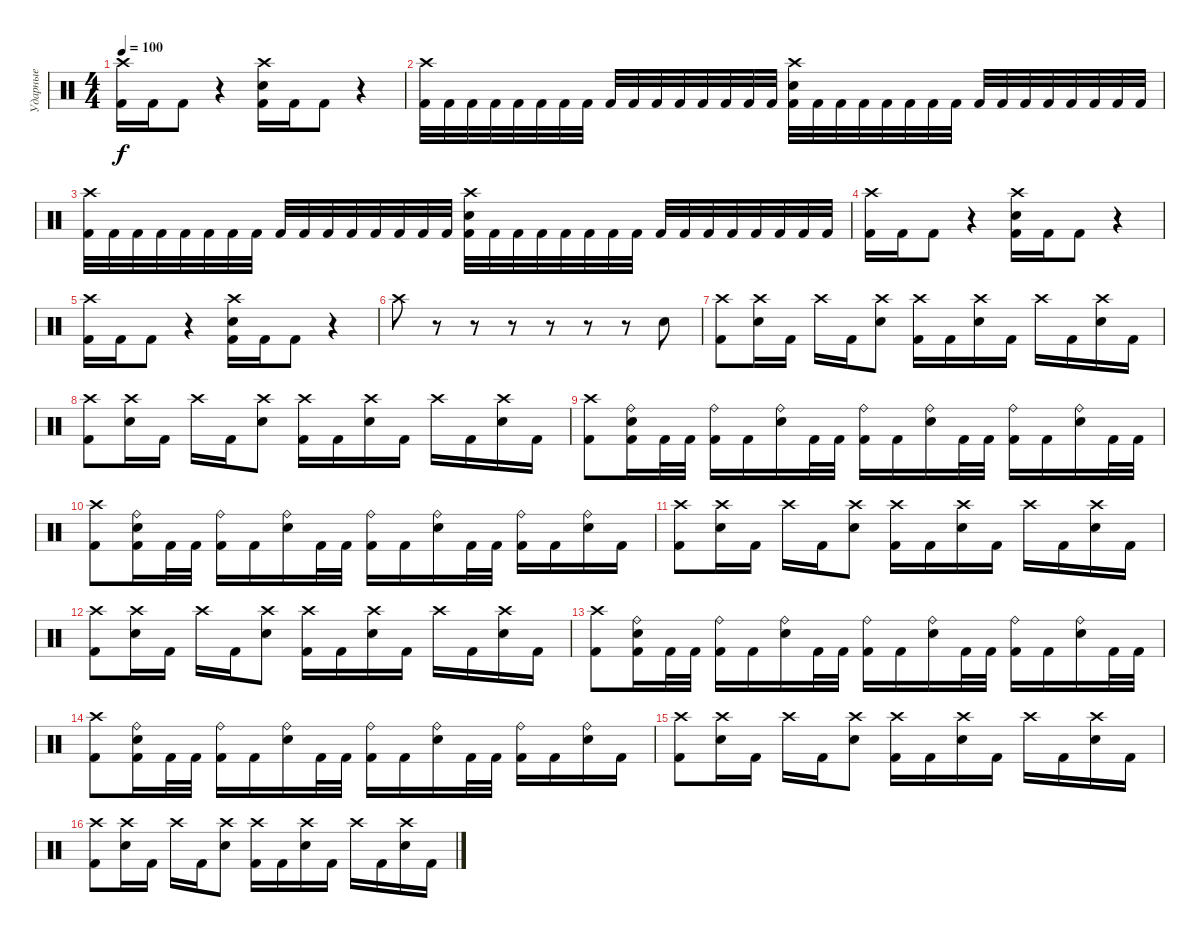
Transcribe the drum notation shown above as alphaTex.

\track ("Ударные" "Ударные") {instrument percussion}
\staff
\articulation defaults
\ts (4 4)
\tempo 100
\clef neutral
\ks c
("Crash high (hit)" "Kick (hit) 2").16{dy f} "Kick (hit) 2".16 "Kick (hit) 2".8 r.4 ("Crash high (hit)" "Electric Snare (hit)" "Kick (hit) 2").16 "Kick (hit) 2".16 "Kick (hit) 2".8 r.4 |
("Crash high (hit)" "Kick (hit) 2").32 "Kick (hit) 2".32 "Kick (hit) 2".32 "Kick (hit) 2".32 "Kick (hit) 2".32 "Kick (hit) 2".32 "Kick (hit) 2".32 "Kick (hit) 2".32 "Kick (hit) 2".32 "Kick (hit) 2".32 "Kick (hit) 2".32 "Kick (hit) 2".32 "Kick (hit) 2".32 "Kick (hit) 2".32 "Kick (hit) 2".32 "Kick (hit) 2".32 ("Crash high (hit)" "Electric Snare (hit)" "Kick (hit) 2").32 "Kick (hit) 2".32 "Kick (hit) 2".32 "Kick (hit) 2".32 "Kick (hit) 2".32 "Kick (hit) 2".32 "Kick (hit) 2".32 "Kick (hit) 2".32 "Kick (hit) 2".32 "Kick (hit) 2".32 "Kick (hit) 2".32 "Kick (hit) 2".32 "Kick (hit) 2".32 "Kick (hit) 2".32 "Kick (hit) 2".32 "Kick (hit) 2".32 |
("Crash high (hit)" "Kick (hit) 2").32 "Kick (hit) 2".32 "Kick (hit) 2".32 "Kick (hit) 2".32 "Kick (hit) 2".32 "Kick (hit) 2".32 "Kick (hit) 2".32 "Kick (hit) 2".32 "Kick (hit) 2".32 "Kick (hit) 2".32 "Kick (hit) 2".32 "Kick (hit) 2".32 "Kick (hit) 2".32 "Kick (hit) 2".32 "Kick (hit) 2".32 "Kick (hit) 2".32 ("Crash high (hit)" "Electric Snare (hit)" "Kick (hit) 2").32 "Kick (hit) 2".32 "Kick (hit) 2".32 "Kick (hit) 2".32 "Kick (hit) 2".32 "Kick (hit) 2".32 "Kick (hit) 2".32 "Kick (hit) 2".32 "Kick (hit) 2".32 "Kick (hit) 2".32 "Kick (hit) 2".32 "Kick (hit) 2".32 "Kick (hit) 2".32 "Kick (hit) 2".32 "Kick (hit) 2".32 "Kick (hit) 2".32 |
("Crash high (hit)" "Kick (hit) 2").16 "Kick (hit) 2".16 "Kick (hit) 2".8 r.4 ("Crash high (hit)" "Electric Snare (hit)" "Kick (hit) 2").16 "Kick (hit) 2".16 "Kick (hit) 2".8 r.4 |
("Crash high (hit)" "Kick (hit) 2").16 "Kick (hit) 2".16 "Kick (hit) 2".8 r.4 ("Crash high (hit)" "Electric Snare (hit)" "Kick (hit) 2").16 "Kick (hit) 2".16 "Kick (hit) 2".8 r.4 |
"Crash high (hit)".8 r.8 r.8 r.8 r.8 r.8 r.8 "Electric Snare (hit)".8 |
("Crash high (hit)" "Kick (hit) 2").8 ("Crash high (hit)" "Electric Snare (hit)").16 "Kick (hit) 2".16 "Crash high (hit)".16 "Kick (hit) 2".16 ("Crash high (hit)" "Electric Snare (hit)").8 ("Crash high (hit)" "Kick (hit) 2").16 "Kick (hit) 2".16 ("Crash high (hit)" "Electric Snare (hit)").16 "Kick (hit) 2".16 "Crash high (hit)".16 "Kick (hit) 2".16 ("Crash high (hit)" "Electric Snare (hit)").16 "Kick (hit) 2".16 |
("Crash high (hit)" "Kick (hit) 2").8 ("Crash high (hit)" "Electric Snare (hit)").16 "Kick (hit) 2".16 "Crash high (hit)".16 "Kick (hit) 2".16 ("Crash high (hit)" "Electric Snare (hit)").8 ("Crash high (hit)" "Kick (hit) 2").16 "Kick (hit) 2".16 ("Crash high (hit)" "Electric Snare (hit)").16 "Kick (hit) 2".16 "Crash high (hit)".16 "Kick (hit) 2".16 ("Crash high (hit)" "Electric Snare (hit)").16 "Kick (hit) 2".16 |
("Crash high (hit)" "Kick (hit) 2").8 ("Ride (bell)" "Electric Snare (hit)" "Kick (hit) 2").16 "Kick (hit) 2".32 "Kick (hit) 2".32 ("Ride (bell)" "Kick (hit) 2").16 "Kick (hit) 2".16 ("Ride (bell)" "Electric Snare (hit)").16 "Kick (hit) 2".32 "Kick (hit) 2".32 ("Ride (bell)" "Kick (hit) 2").16 "Kick (hit) 2".16 ("Ride (bell)" "Electric Snare (hit)").16 "Kick (hit) 2".32 "Kick (hit) 2".32 ("Ride (bell)" "Kick (hit) 2").16 "Kick (hit) 2".16 ("Ride (bell)" "Electric Snare (hit)").16 "Kick (hit) 2".32 "Kick (hit) 2".32 |
("Crash high (hit)" "Kick (hit) 2").8 ("Ride (bell)" "Electric Snare (hit)" "Kick (hit) 2").16 "Kick (hit) 2".32 "Kick (hit) 2".32 ("Ride (bell)" "Kick (hit) 2").16 "Kick (hit) 2".16 ("Ride (bell)" "Electric Snare (hit)").16 "Kick (hit) 2".32 "Kick (hit) 2".32 ("Ride (bell)" "Kick (hit) 2").16 "Kick (hit) 2".16 ("Ride (bell)" "Electric Snare (hit)").16 "Kick (hit) 2".32 "Kick (hit) 2".32 ("Ride (bell)" "Kick (hit) 2").16 "Kick (hit) 2".16 ("Ride (bell)" "Electric Snare (hit)").16 "Kick (hit) 2".16 |
("Crash high (hit)" "Kick (hit) 2").8 ("Crash high (hit)" "Electric Snare (hit)").16 "Kick (hit) 2".16 "Crash high (hit)".16 "Kick (hit) 2".16 ("Crash high (hit)" "Electric Snare (hit)").8 ("Crash high (hit)" "Kick (hit) 2").16 "Kick (hit) 2".16 ("Crash high (hit)" "Electric Snare (hit)").16 "Kick (hit) 2".16 "Crash high (hit)".16 "Kick (hit) 2".16 ("Crash high (hit)" "Electric Snare (hit)").16 "Kick (hit) 2".16 |
("Crash high (hit)" "Kick (hit) 2").8 ("Crash high (hit)" "Electric Snare (hit)").16 "Kick (hit) 2".16 "Crash high (hit)".16 "Kick (hit) 2".16 ("Crash high (hit)" "Electric Snare (hit)").8 ("Crash high (hit)" "Kick (hit) 2").16 "Kick (hit) 2".16 ("Crash high (hit)" "Electric Snare (hit)").16 "Kick (hit) 2".16 "Crash high (hit)".16 "Kick (hit) 2".16 ("Crash high (hit)" "Electric Snare (hit)").16 "Kick (hit) 2".16 |
("Crash high (hit)" "Kick (hit) 2").8 ("Ride (bell)" "Electric Snare (hit)" "Kick (hit) 2").16 "Kick (hit) 2".32 "Kick (hit) 2".32 ("Ride (bell)" "Kick (hit) 2").16 "Kick (hit) 2".16 ("Ride (bell)" "Electric Snare (hit)").16 "Kick (hit) 2".32 "Kick (hit) 2".32 ("Ride (bell)" "Kick (hit) 2").16 "Kick (hit) 2".16 ("Ride (bell)" "Electric Snare (hit)").16 "Kick (hit) 2".32 "Kick (hit) 2".32 ("Ride (bell)" "Kick (hit) 2").16 "Kick (hit) 2".16 ("Ride (bell)" "Electric Snare (hit)").16 "Kick (hit) 2".32 "Kick (hit) 2".32 |
("Crash high (hit)" "Kick (hit) 2").8 ("Ride (bell)" "Electric Snare (hit)" "Kick (hit) 2").16 "Kick (hit) 2".32 "Kick (hit) 2".32 ("Ride (bell)" "Kick (hit) 2").16 "Kick (hit) 2".16 ("Ride (bell)" "Electric Snare (hit)").16 "Kick (hit) 2".32 "Kick (hit) 2".32 ("Ride (bell)" "Kick (hit) 2").16 "Kick (hit) 2".16 ("Ride (bell)" "Electric Snare (hit)").16 "Kick (hit) 2".32 "Kick (hit) 2".32 ("Ride (bell)" "Kick (hit) 2").16 "Kick (hit) 2".16 ("Ride (bell)" "Electric Snare (hit)").16 "Kick (hit) 2".16 |
("Crash high (hit)" "Kick (hit) 2").8 ("Crash high (hit)" "Electric Snare (hit)").16 "Kick (hit) 2".16 "Crash high (hit)".16 "Kick (hit) 2".16 ("Crash high (hit)" "Electric Snare (hit)").8 ("Crash high (hit)" "Kick (hit) 2").16 "Kick (hit) 2".16 ("Crash high (hit)" "Electric Snare (hit)").16 "Kick (hit) 2".16 "Crash high (hit)".16 "Kick (hit) 2".16 ("Crash high (hit)" "Electric Snare (hit)").16 "Kick (hit) 2".16 |
("Crash high (hit)" "Kick (hit) 2").8 ("Crash high (hit)" "Electric Snare (hit)").16 "Kick (hit) 2".16 "Crash high (hit)".16 "Kick (hit) 2".16 ("Crash high (hit)" "Electric Snare (hit)").8 ("Crash high (hit)" "Kick (hit) 2").16 "Kick (hit) 2".16 ("Crash high (hit)" "Electric Snare (hit)").16 "Kick (hit) 2".16 "Crash high (hit)".16 "Kick (hit) 2".16 ("Crash high (hit)" "Electric Snare (hit)").16 "Kick (hit) 2".16
